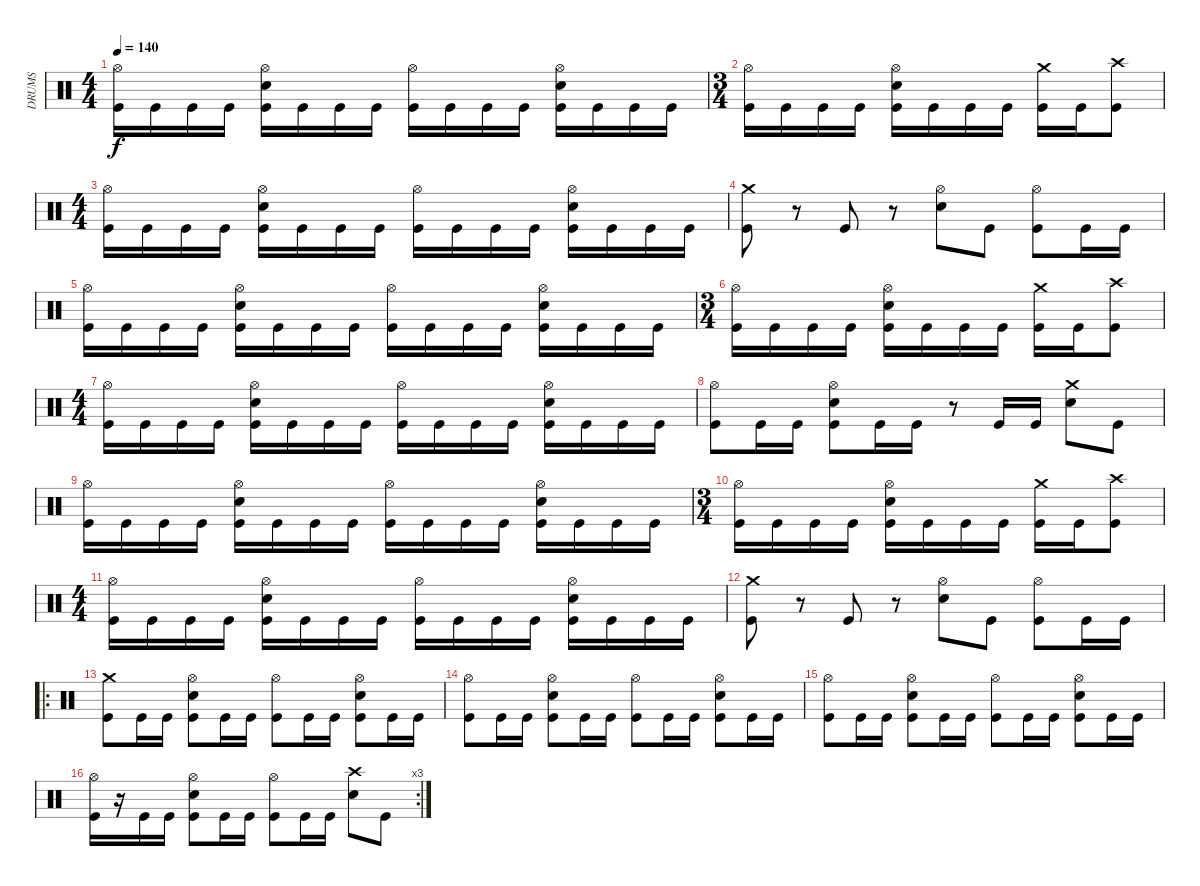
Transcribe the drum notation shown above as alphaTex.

\track ("DRUMS" "DRUMS") {instrument percussion}
\staff {score}
\articulation defaults
\ts (4 4)
\tempo 140
\clef neutral
\ks c
("Hi-Hat (open)" "Kick (hit)").16{dy f} "Kick (hit)".16 "Kick (hit)".16 "Kick (hit)".16 ("Hi-Hat (open)" "Electric Snare (hit)" "Kick (hit)").16 "Kick (hit)".16 "Kick (hit)".16 "Kick (hit)".16 ("Hi-Hat (open)" "Kick (hit)").16 "Kick (hit)".16 "Kick (hit)".16 "Kick (hit)".16 ("Hi-Hat (open)" "Electric Snare (hit)" "Kick (hit)").16 "Kick (hit)".16 "Kick (hit)".16 "Kick (hit)".16 |
\ts (3 4)
("Hi-Hat (open)" "Kick (hit)").16 "Kick (hit)".16 "Kick (hit)".16 "Kick (hit)".16 ("Hi-Hat (open)" "Electric Snare (hit)" "Kick (hit)").16 "Kick (hit)".16 "Kick (hit)".16 "Kick (hit)".16 ("Crash medium (hit)" "Kick (hit)").16 "Kick (hit)".16 ("Crash high (hit)" "Kick (hit)").8 |
\ts (4 4)
("Hi-Hat (open)" "Kick (hit)").16 "Kick (hit)".16 "Kick (hit)".16 "Kick (hit)".16 ("Hi-Hat (open)" "Electric Snare (hit)" "Kick (hit)").16 "Kick (hit)".16 "Kick (hit)".16 "Kick (hit)".16 ("Hi-Hat (open)" "Kick (hit)").16 "Kick (hit)".16 "Kick (hit)".16 "Kick (hit)".16 ("Hi-Hat (open)" "Electric Snare (hit)" "Kick (hit)").16 "Kick (hit)".16 "Kick (hit)".16 "Kick (hit)".16 |
("Crash medium (hit)" "Kick (hit)").8 r.8 "Kick (hit)".8 r.8 ("Hi-Hat (open)" "Electric Snare (hit)").8 "Kick (hit)".8 ("Hi-Hat (open)" "Kick (hit)").8 "Kick (hit)".16 "Kick (hit)".16 |
("Hi-Hat (open)" "Kick (hit)").16 "Kick (hit)".16 "Kick (hit)".16 "Kick (hit)".16 ("Hi-Hat (open)" "Electric Snare (hit)" "Kick (hit)").16 "Kick (hit)".16 "Kick (hit)".16 "Kick (hit)".16 ("Hi-Hat (open)" "Kick (hit)").16 "Kick (hit)".16 "Kick (hit)".16 "Kick (hit)".16 ("Hi-Hat (open)" "Electric Snare (hit)" "Kick (hit)").16 "Kick (hit)".16 "Kick (hit)".16 "Kick (hit)".16 |
\ts (3 4)
("Hi-Hat (open)" "Kick (hit)").16 "Kick (hit)".16 "Kick (hit)".16 "Kick (hit)".16 ("Hi-Hat (open)" "Electric Snare (hit)" "Kick (hit)").16 "Kick (hit)".16 "Kick (hit)".16 "Kick (hit)".16 ("Crash medium (hit)" "Kick (hit)").16 "Kick (hit)".16 ("Crash high (hit)" "Kick (hit)").8 |
\ts (4 4)
("Hi-Hat (open)" "Kick (hit)").16 "Kick (hit)".16 "Kick (hit)".16 "Kick (hit)".16 ("Hi-Hat (open)" "Electric Snare (hit)" "Kick (hit)").16 "Kick (hit)".16 "Kick (hit)".16 "Kick (hit)".16 ("Hi-Hat (open)" "Kick (hit)").16 "Kick (hit)".16 "Kick (hit)".16 "Kick (hit)".16 ("Hi-Hat (open)" "Electric Snare (hit)" "Kick (hit)").16 "Kick (hit)".16 "Kick (hit)".16 "Kick (hit)".16 |
("Hi-Hat (open)" "Kick (hit)").8 "Kick (hit)".16 "Kick (hit)".16 ("Hi-Hat (open)" "Electric Snare (hit)" "Kick (hit)").8 "Kick (hit)".16 "Kick (hit)".16 r.8 "Kick (hit)".16 "Kick (hit)".16 ("Crash medium (hit)" "Electric Snare (hit)").8 "Kick (hit)".8 |
("Hi-Hat (open)" "Kick (hit)").16 "Kick (hit)".16 "Kick (hit)".16 "Kick (hit)".16 ("Hi-Hat (open)" "Electric Snare (hit)" "Kick (hit)").16 "Kick (hit)".16 "Kick (hit)".16 "Kick (hit)".16 ("Hi-Hat (open)" "Kick (hit)").16 "Kick (hit)".16 "Kick (hit)".16 "Kick (hit)".16 ("Hi-Hat (open)" "Electric Snare (hit)" "Kick (hit)").16 "Kick (hit)".16 "Kick (hit)".16 "Kick (hit)".16 |
\ts (3 4)
("Hi-Hat (open)" "Kick (hit)").16 "Kick (hit)".16 "Kick (hit)".16 "Kick (hit)".16 ("Hi-Hat (open)" "Electric Snare (hit)" "Kick (hit)").16 "Kick (hit)".16 "Kick (hit)".16 "Kick (hit)".16 ("Crash medium (hit)" "Kick (hit)").16 "Kick (hit)".16 ("Crash high (hit)" "Kick (hit)").8 |
\ts (4 4)
("Hi-Hat (open)" "Kick (hit)").16 "Kick (hit)".16 "Kick (hit)".16 "Kick (hit)".16 ("Hi-Hat (open)" "Electric Snare (hit)" "Kick (hit)").16 "Kick (hit)".16 "Kick (hit)".16 "Kick (hit)".16 ("Hi-Hat (open)" "Kick (hit)").16 "Kick (hit)".16 "Kick (hit)".16 "Kick (hit)".16 ("Hi-Hat (open)" "Electric Snare (hit)" "Kick (hit)").16 "Kick (hit)".16 "Kick (hit)".16 "Kick (hit)".16 |
("Crash medium (hit)" "Kick (hit)").8 r.8 "Kick (hit)".8 r.8 ("Hi-Hat (open)" "Electric Snare (hit)").8 "Kick (hit)".8 ("Hi-Hat (open)" "Kick (hit)").8 "Kick (hit)".16 "Kick (hit)".16 |
\ro
("Crash medium (hit)" "Kick (hit)").8 "Kick (hit)".16 "Kick (hit)".16 ("Hi-Hat (open)" "Electric Snare (hit)" "Kick (hit)").8 "Kick (hit)".16 "Kick (hit)".16 ("Hi-Hat (open)" "Kick (hit)").8 "Kick (hit)".16 "Kick (hit)".16 ("Hi-Hat (open)" "Electric Snare (hit)" "Kick (hit)").8 "Kick (hit)".16 "Kick (hit)".16 |
("Hi-Hat (open)" "Kick (hit)").8 "Kick (hit)".16 "Kick (hit)".16 ("Hi-Hat (open)" "Electric Snare (hit)" "Kick (hit)").8 "Kick (hit)".16 "Kick (hit)".16 ("Hi-Hat (open)" "Kick (hit)").8 "Kick (hit)".16 "Kick (hit)".16 ("Hi-Hat (open)" "Electric Snare (hit)" "Kick (hit)").8 "Kick (hit)".16 "Kick (hit)".16 |
("Hi-Hat (open)" "Kick (hit)").8 "Kick (hit)".16 "Kick (hit)".16 ("Hi-Hat (open)" "Electric Snare (hit)" "Kick (hit)").8 "Kick (hit)".16 "Kick (hit)".16 ("Hi-Hat (open)" "Kick (hit)").8 "Kick (hit)".16 "Kick (hit)".16 ("Hi-Hat (open)" "Electric Snare (hit)" "Kick (hit)").8 "Kick (hit)".16 "Kick (hit)".16 |
\rc 3
("Hi-Hat (open)" "Kick (hit)").16 r.16 "Kick (hit)".16 "Kick (hit)".16 ("Hi-Hat (open)" "Electric Snare (hit)" "Kick (hit)").8 "Kick (hit)".16 "Kick (hit)".16 ("Hi-Hat (open)" "Kick (hit)").8 "Kick (hit)".16 "Kick (hit)".16 ("Crash high (hit)" "Electric Snare (hit)").8 "Kick (hit)".8
